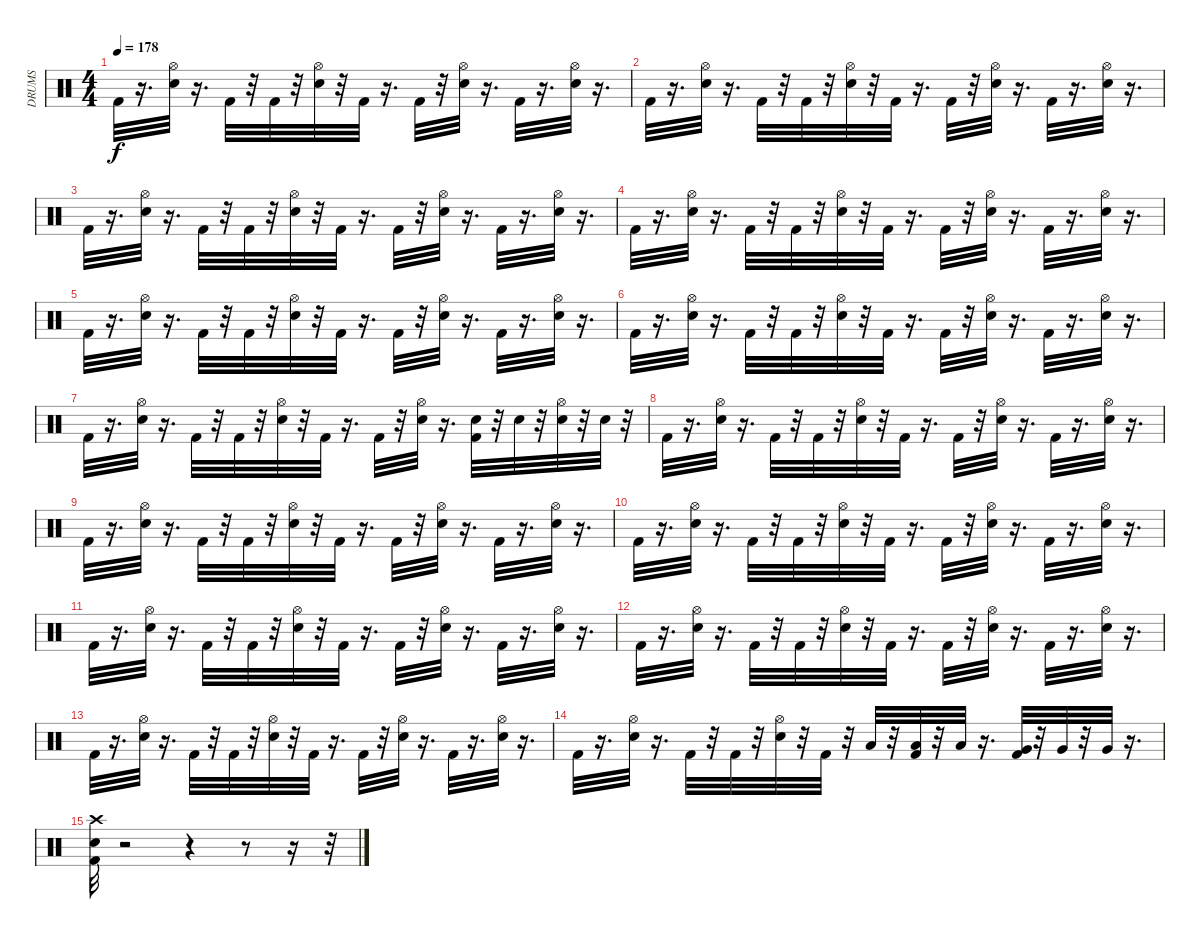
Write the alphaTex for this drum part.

\track ("DRUMS" "DRUMS") {instrument percussion}
\staff {score}
\articulation defaults
\ts (4 4)
\tempo 178
\clef neutral
\ks c "Kick (hit) 2".32{dy f}
r.16{d} ("Electric Snare (hit)" "Hi-Hat (open)").32 r.16{d} "Kick (hit) 2".32 r.32 "Kick (hit) 2".32 r.32 ("Electric Snare (hit)" "Hi-Hat (open)").32 r.32 "Kick (hit) 2".32 r.16{d} "Kick (hit) 2".32 r.32 ("Electric Snare (hit)" "Hi-Hat (open)").32 r.16{d} "Kick (hit) 2".32 r.16{d} ("Electric Snare (hit)" "Hi-Hat (open)").32 r.16{d} |
"Kick (hit) 2".32 r.16{d} ("Electric Snare (hit)" "Hi-Hat (open)").32 r.16{d} "Kick (hit) 2".32 r.32 "Kick (hit) 2".32 r.32 ("Electric Snare (hit)" "Hi-Hat (open)").32 r.32 "Kick (hit) 2".32 r.16{d} "Kick (hit) 2".32 r.32 ("Electric Snare (hit)" "Hi-Hat (open)").32 r.16{d} "Kick (hit) 2".32 r.16{d} ("Electric Snare (hit)" "Hi-Hat (open)").32 r.16{d} |
"Kick (hit) 2".32 r.16{d} ("Electric Snare (hit)" "Hi-Hat (open)").32 r.16{d} "Kick (hit) 2".32 r.32 "Kick (hit) 2".32 r.32 ("Electric Snare (hit)" "Hi-Hat (open)").32 r.32 "Kick (hit) 2".32 r.16{d} "Kick (hit) 2".32 r.32 ("Electric Snare (hit)" "Hi-Hat (open)").32 r.16{d} "Kick (hit) 2".32 r.16{d} ("Electric Snare (hit)" "Hi-Hat (open)").32 r.16{d} |
"Kick (hit) 2".32 r.16{d} ("Electric Snare (hit)" "Hi-Hat (open)").32 r.16{d} "Kick (hit) 2".32 r.32 "Kick (hit) 2".32 r.32 ("Electric Snare (hit)" "Hi-Hat (open)").32 r.32 "Kick (hit) 2".32 r.16{d} "Kick (hit) 2".32 r.32 ("Electric Snare (hit)" "Hi-Hat (open)").32 r.16{d} "Kick (hit) 2".32 r.16{d} ("Electric Snare (hit)" "Hi-Hat (open)").32 r.16{d} |
"Kick (hit) 2".32 r.16{d} ("Electric Snare (hit)" "Hi-Hat (open)").32 r.16{d} "Kick (hit) 2".32 r.32 "Kick (hit) 2".32 r.32 ("Electric Snare (hit)" "Hi-Hat (open)").32 r.32 "Kick (hit) 2".32 r.16{d} "Kick (hit) 2".32 r.32 ("Electric Snare (hit)" "Hi-Hat (open)").32 r.16{d} "Kick (hit) 2".32 r.16{d} ("Electric Snare (hit)" "Hi-Hat (open)").32 r.16{d} |
"Kick (hit) 2".32 r.16{d} ("Electric Snare (hit)" "Hi-Hat (open)").32 r.16{d} "Kick (hit) 2".32 r.32 "Kick (hit) 2".32 r.32 ("Electric Snare (hit)" "Hi-Hat (open)").32 r.32 "Kick (hit) 2".32 r.16{d} "Kick (hit) 2".32 r.32 ("Electric Snare (hit)" "Hi-Hat (open)").32 r.16{d} "Kick (hit) 2".32 r.16{d} ("Electric Snare (hit)" "Hi-Hat (open)").32 r.16{d} |
"Kick (hit) 2".32 r.16{d} ("Electric Snare (hit)" "Hi-Hat (open)").32 r.16{d} "Kick (hit) 2".32 r.32 "Kick (hit) 2".32 r.32 ("Electric Snare (hit)" "Hi-Hat (open)").32 r.32 "Kick (hit) 2".32 r.16{d} "Kick (hit) 2".32 r.32 ("Electric Snare (hit)" "Hi-Hat (open)").32 r.16{d} ("Kick (hit) 2" "Electric Snare (hit)").32 r.32 "Electric Snare (hit)".32 r.32 ("Electric Snare (hit)" "Hi-Hat (open)").32 r.32 "Electric Snare (hit)".32 r.32 |
"Kick (hit) 2".32 r.16{d} ("Electric Snare (hit)" "Hi-Hat (open)").32 r.16{d} "Kick (hit) 2".32 r.32 "Kick (hit) 2".32 r.32 ("Electric Snare (hit)" "Hi-Hat (open)").32 r.32 "Kick (hit) 2".32 r.16{d} "Kick (hit) 2".32 r.32 ("Electric Snare (hit)" "Hi-Hat (open)").32 r.16{d} "Kick (hit) 2".32 r.16{d} ("Electric Snare (hit)" "Hi-Hat (open)").32 r.16{d} |
"Kick (hit) 2".32 r.16{d} ("Electric Snare (hit)" "Hi-Hat (open)").32 r.16{d} "Kick (hit) 2".32 r.32 "Kick (hit) 2".32 r.32 ("Electric Snare (hit)" "Hi-Hat (open)").32 r.32 "Kick (hit) 2".32 r.16{d} "Kick (hit) 2".32 r.32 ("Electric Snare (hit)" "Hi-Hat (open)").32 r.16{d} "Kick (hit) 2".32 r.16{d} ("Electric Snare (hit)" "Hi-Hat (open)").32 r.16{d} |
"Kick (hit) 2".32 r.16{d} ("Electric Snare (hit)" "Hi-Hat (open)").32 r.16{d} "Kick (hit) 2".32 r.32 "Kick (hit) 2".32 r.32 ("Electric Snare (hit)" "Hi-Hat (open)").32 r.32 "Kick (hit) 2".32 r.16{d} "Kick (hit) 2".32 r.32 ("Electric Snare (hit)" "Hi-Hat (open)").32 r.16{d} "Kick (hit) 2".32 r.16{d} ("Electric Snare (hit)" "Hi-Hat (open)").32 r.16{d} |
"Kick (hit) 2".32 r.16{d} ("Electric Snare (hit)" "Hi-Hat (open)").32 r.16{d} "Kick (hit) 2".32 r.32 "Kick (hit) 2".32 r.32 ("Electric Snare (hit)" "Hi-Hat (open)").32 r.32 "Kick (hit) 2".32 r.16{d} "Kick (hit) 2".32 r.32 ("Electric Snare (hit)" "Hi-Hat (open)").32 r.16{d} "Kick (hit) 2".32 r.16{d} ("Electric Snare (hit)" "Hi-Hat (open)").32 r.16{d} |
"Kick (hit) 2".32 r.16{d} ("Electric Snare (hit)" "Hi-Hat (open)").32 r.16{d} "Kick (hit) 2".32 r.32 "Kick (hit) 2".32 r.32 ("Electric Snare (hit)" "Hi-Hat (open)").32 r.32 "Kick (hit) 2".32 r.16{d} "Kick (hit) 2".32 r.32 ("Electric Snare (hit)" "Hi-Hat (open)").32 r.16{d} "Kick (hit) 2".32 r.16{d} ("Electric Snare (hit)" "Hi-Hat (open)").32 r.16{d} |
"Kick (hit) 2".32 r.16{d} ("Electric Snare (hit)" "Hi-Hat (open)").32 r.16{d} "Kick (hit) 2".32 r.32 "Kick (hit) 2".32 r.32 ("Electric Snare (hit)" "Hi-Hat (open)").32 r.32 "Kick (hit) 2".32 r.16{d} "Kick (hit) 2".32 r.32 ("Electric Snare (hit)" "Hi-Hat (open)").32 r.16{d} "Kick (hit) 2".32 r.16{d} ("Electric Snare (hit)" "Hi-Hat (open)").32 r.16{d} |
"Kick (hit) 2".32 r.16{d} ("Electric Snare (hit)" "Hi-Hat (open)").32 r.16{d} "Kick (hit) 2".32 r.32 "Kick (hit) 2".32 r.32 ("Electric Snare (hit)" "Hi-Hat (open)").32 r.32 "Kick (hit) 2".32 r.32 "Low Tom (hit)".32 r.32 ("Kick (hit) 2" "Low Tom (hit)").32 r.32 "Low Tom (hit)".32 r.16{d} ("Kick (hit) 2" "Very Low Tom (hit)").32 r.32 "Very Low Tom (hit)".32 r.32 "Very Low Tom (hit)".32 r.16{d} |
("Kick (hit) 2" "Crash high (hit)" "Electric Snare (hit)").32 r.2 r.4 r.8 r.16 r.32
